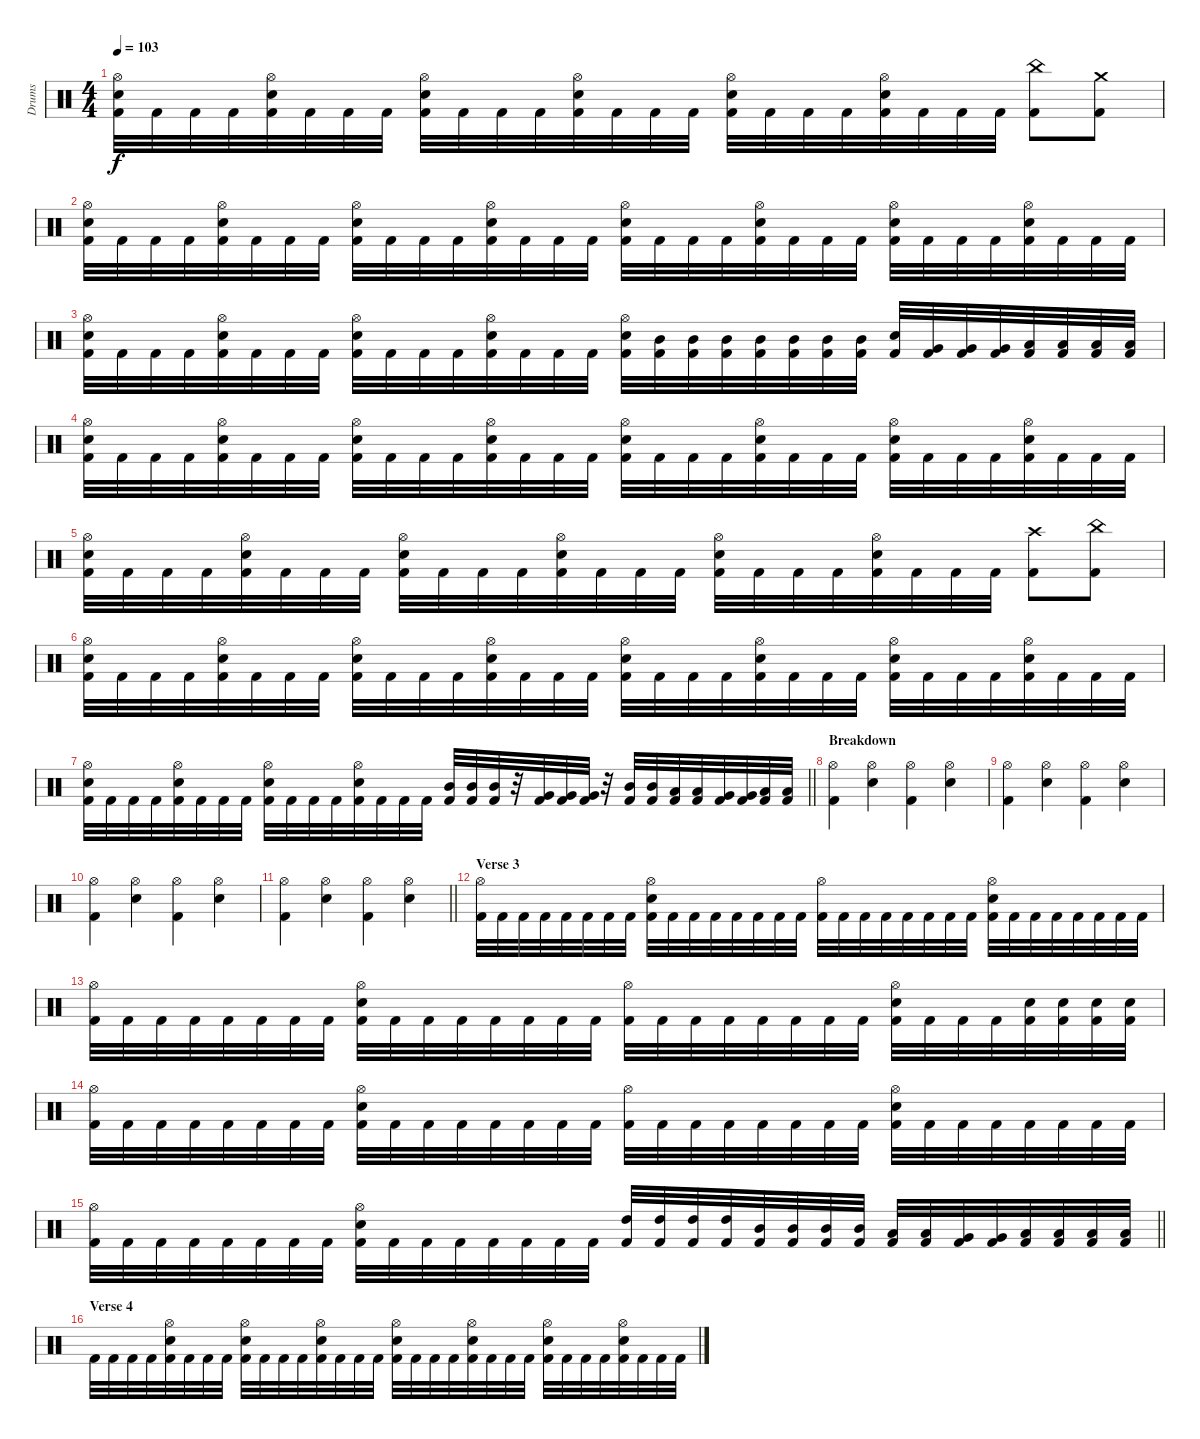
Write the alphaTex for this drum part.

\track ("Drums" "Drums") {instrument percussion}
\staff {score}
\articulation defaults
\ts (4 4)
\tempo 103
\clef neutral
\ks c
("Hi-Hat (open)" "Electric Snare (hit)" "Kick (hit) 2").32{dy f} "Kick (hit) 2".32 "Kick (hit) 2".32 "Kick (hit) 2".32 ("Hi-Hat (open)" "Electric Snare (hit)" "Kick (hit) 2").32 "Kick (hit) 2".32 "Kick (hit) 2".32 "Kick (hit) 2".32 ("Hi-Hat (open)" "Electric Snare (hit)" "Kick (hit) 2").32 "Kick (hit) 2".32 "Kick (hit) 2".32 "Kick (hit) 2".32 ("Hi-Hat (open)" "Electric Snare (hit)" "Kick (hit) 2").32 "Kick (hit) 2".32 "Kick (hit) 2".32 "Kick (hit) 2".32 ("Hi-Hat (open)" "Electric Snare (hit)" "Kick (hit) 2").32 "Kick (hit) 2".32 "Kick (hit) 2".32 "Kick (hit) 2".32 ("Hi-Hat (open)" "Electric Snare (hit)" "Kick (hit) 2").32 "Kick (hit) 2".32 "Kick (hit) 2".32 "Kick (hit) 2".32 ("China (hit)" "Kick (hit) 2").8 ("Crash medium (hit)" "Kick (hit) 2").8 |
("Hi-Hat (open)" "Electric Snare (hit)" "Kick (hit) 2").32 "Kick (hit) 2".32 "Kick (hit) 2".32 "Kick (hit) 2".32 ("Hi-Hat (open)" "Electric Snare (hit)" "Kick (hit) 2").32 "Kick (hit) 2".32 "Kick (hit) 2".32 "Kick (hit) 2".32 ("Hi-Hat (open)" "Electric Snare (hit)" "Kick (hit) 2").32 "Kick (hit) 2".32 "Kick (hit) 2".32 "Kick (hit) 2".32 ("Hi-Hat (open)" "Electric Snare (hit)" "Kick (hit) 2").32 "Kick (hit) 2".32 "Kick (hit) 2".32 "Kick (hit) 2".32 ("Hi-Hat (open)" "Electric Snare (hit)" "Kick (hit) 2").32 "Kick (hit) 2".32 "Kick (hit) 2".32 "Kick (hit) 2".32 ("Hi-Hat (open)" "Electric Snare (hit)" "Kick (hit) 2").32 "Kick (hit) 2".32 "Kick (hit) 2".32 "Kick (hit) 2".32 ("Hi-Hat (open)" "Electric Snare (hit)" "Kick (hit) 2").32 "Kick (hit) 2".32 "Kick (hit) 2".32 "Kick (hit) 2".32 ("Hi-Hat (open)" "Electric Snare (hit)" "Kick (hit) 2").32 "Kick (hit) 2".32 "Kick (hit) 2".32 "Kick (hit) 2".32 |
("Hi-Hat (open)" "Electric Snare (hit)" "Kick (hit) 2").32 "Kick (hit) 2".32 "Kick (hit) 2".32 "Kick (hit) 2".32 ("Hi-Hat (open)" "Electric Snare (hit)" "Kick (hit) 2").32 "Kick (hit) 2".32 "Kick (hit) 2".32 "Kick (hit) 2".32 ("Hi-Hat (open)" "Electric Snare (hit)" "Kick (hit) 2").32 "Kick (hit) 2".32 "Kick (hit) 2".32 "Kick (hit) 2".32 ("Hi-Hat (open)" "Electric Snare (hit)" "Kick (hit) 2").32 "Kick (hit) 2".32 "Kick (hit) 2".32 "Kick (hit) 2".32 ("Hi-Hat (open)" "Electric Snare (hit)" "Kick (hit) 2").32 ("Mid Tom (hit)" "Kick (hit) 2").32 ("Mid Tom (hit)" "Kick (hit) 2").32 ("Mid Tom (hit)" "Kick (hit) 2").32 ("Mid Tom (hit)" "Kick (hit) 2").32 ("Mid Tom (hit)" "Kick (hit) 2").32 ("Mid Tom (hit)" "Kick (hit) 2").32 ("Mid Tom (hit)" "Kick (hit) 2").32 ("Electric Snare (hit)" "Kick (hit) 2").32 ("Very Low Tom (hit)" "Kick (hit) 2").32 ("Very Low Tom (hit)" "Kick (hit) 2").32 ("Very Low Tom (hit)" "Kick (hit) 2").32 ("Low Floor Tom (hit)" "Kick (hit) 2").32 ("Low Floor Tom (hit)" "Kick (hit) 2").32 ("Low Floor Tom (hit)" "Kick (hit) 2").32 ("Low Floor Tom (hit)" "Kick (hit) 2").32 |
("Hi-Hat (open)" "Electric Snare (hit)" "Kick (hit) 2").32 "Kick (hit) 2".32 "Kick (hit) 2".32 "Kick (hit) 2".32 ("Hi-Hat (open)" "Electric Snare (hit)" "Kick (hit) 2").32 "Kick (hit) 2".32 "Kick (hit) 2".32 "Kick (hit) 2".32 ("Hi-Hat (open)" "Electric Snare (hit)" "Kick (hit) 2").32 "Kick (hit) 2".32 "Kick (hit) 2".32 "Kick (hit) 2".32 ("Hi-Hat (open)" "Electric Snare (hit)" "Kick (hit) 2").32 "Kick (hit) 2".32 "Kick (hit) 2".32 "Kick (hit) 2".32 ("Hi-Hat (open)" "Electric Snare (hit)" "Kick (hit) 2").32 "Kick (hit) 2".32 "Kick (hit) 2".32 "Kick (hit) 2".32 ("Hi-Hat (open)" "Electric Snare (hit)" "Kick (hit) 2").32 "Kick (hit) 2".32 "Kick (hit) 2".32 "Kick (hit) 2".32 ("Hi-Hat (open)" "Electric Snare (hit)" "Kick (hit) 2").32 "Kick (hit) 2".32 "Kick (hit) 2".32 "Kick (hit) 2".32 ("Hi-Hat (open)" "Electric Snare (hit)" "Kick (hit) 2").32 "Kick (hit) 2".32 "Kick (hit) 2".32 "Kick (hit) 2".32 |
("Hi-Hat (open)" "Electric Snare (hit)" "Kick (hit) 2").32 "Kick (hit) 2".32 "Kick (hit) 2".32 "Kick (hit) 2".32 ("Hi-Hat (open)" "Electric Snare (hit)" "Kick (hit) 2").32 "Kick (hit) 2".32 "Kick (hit) 2".32 "Kick (hit) 2".32 ("Hi-Hat (open)" "Electric Snare (hit)" "Kick (hit) 2").32 "Kick (hit) 2".32 "Kick (hit) 2".32 "Kick (hit) 2".32 ("Hi-Hat (open)" "Electric Snare (hit)" "Kick (hit) 2").32 "Kick (hit) 2".32 "Kick (hit) 2".32 "Kick (hit) 2".32 ("Hi-Hat (open)" "Electric Snare (hit)" "Kick (hit) 2").32 "Kick (hit) 2".32 "Kick (hit) 2".32 "Kick (hit) 2".32 ("Hi-Hat (open)" "Electric Snare (hit)" "Kick (hit) 2").32 "Kick (hit) 2".32 "Kick (hit) 2".32 "Kick (hit) 2".32 ("Crash high (hit)" "Kick (hit) 2").8 ("China (hit)" "Kick (hit) 2").8 |
("Hi-Hat (open)" "Electric Snare (hit)" "Kick (hit) 2").32 "Kick (hit) 2".32 "Kick (hit) 2".32 "Kick (hit) 2".32 ("Hi-Hat (open)" "Electric Snare (hit)" "Kick (hit) 2").32 "Kick (hit) 2".32 "Kick (hit) 2".32 "Kick (hit) 2".32 ("Hi-Hat (open)" "Electric Snare (hit)" "Kick (hit) 2").32 "Kick (hit) 2".32 "Kick (hit) 2".32 "Kick (hit) 2".32 ("Hi-Hat (open)" "Electric Snare (hit)" "Kick (hit) 2").32 "Kick (hit) 2".32 "Kick (hit) 2".32 "Kick (hit) 2".32 ("Hi-Hat (open)" "Electric Snare (hit)" "Kick (hit) 2").32 "Kick (hit) 2".32 "Kick (hit) 2".32 "Kick (hit) 2".32 ("Hi-Hat (open)" "Electric Snare (hit)" "Kick (hit) 2").32 "Kick (hit) 2".32 "Kick (hit) 2".32 "Kick (hit) 2".32 ("Hi-Hat (open)" "Electric Snare (hit)" "Kick (hit) 2").32 "Kick (hit) 2".32 "Kick (hit) 2".32 "Kick (hit) 2".32 ("Hi-Hat (open)" "Electric Snare (hit)" "Kick (hit) 2").32 "Kick (hit) 2".32 "Kick (hit) 2".32 "Kick (hit) 2".32 |
\barLineRight lightlight
("Hi-Hat (open)" "Electric Snare (hit)" "Kick (hit) 2").32 "Kick (hit) 2".32 "Kick (hit) 2".32 "Kick (hit) 2".32 ("Hi-Hat (open)" "Electric Snare (hit)" "Kick (hit) 2").32 "Kick (hit) 2".32 "Kick (hit) 2".32 "Kick (hit) 2".32 ("Hi-Hat (open)" "Electric Snare (hit)" "Kick (hit) 2").32 "Kick (hit) 2".32 "Kick (hit) 2".32 "Kick (hit) 2".32 ("Hi-Hat (open)" "Electric Snare (hit)" "Kick (hit) 2").32 "Kick (hit) 2".32 "Kick (hit) 2".32 "Kick (hit) 2".32 ("Mid Tom (hit)" "Kick (hit) 2").32 ("Mid Tom (hit)" "Kick (hit) 2").32 ("Mid Tom (hit)" "Kick (hit) 2").32 r.32 ("Very Low Tom (hit)" "Kick (hit) 2").32 ("Very Low Tom (hit)" "Kick (hit) 2").32 ("Very Low Tom (hit)" "Kick (hit) 2").32 r.32 ("Mid Tom (hit)" "Kick (hit) 2").32 ("Mid Tom (hit)" "Kick (hit) 2").32 ("Low Tom (hit)" "Kick (hit) 2").32 ("Low Tom (hit)" "Kick (hit) 2").32 ("Very Low Tom (hit)" "Kick (hit) 2").32 ("Very Low Tom (hit)" "Kick (hit) 2").32 ("Low Floor Tom (hit)" "Kick (hit) 2").32 ("Low Floor Tom (hit)" "Kick (hit) 2").32 |
\section ("" "Breakdown")
("Hi-Hat (open)" "Kick (hit) 2").4 ("Hi-Hat (open)" "Electric Snare (hit)").4 ("Hi-Hat (open)" "Kick (hit) 2").4 ("Hi-Hat (open)" "Electric Snare (hit)").4 |
("Hi-Hat (open)" "Kick (hit) 2").4 ("Hi-Hat (open)" "Electric Snare (hit)").4 ("Hi-Hat (open)" "Kick (hit) 2").4 ("Hi-Hat (open)" "Electric Snare (hit)").4 |
("Hi-Hat (open)" "Kick (hit) 2").4 ("Hi-Hat (open)" "Electric Snare (hit)").4 ("Hi-Hat (open)" "Kick (hit) 2").4 ("Hi-Hat (open)" "Electric Snare (hit)").4 |
\barLineRight lightlight
("Hi-Hat (open)" "Kick (hit) 2").4 ("Hi-Hat (open)" "Electric Snare (hit)").4 ("Hi-Hat (open)" "Kick (hit) 2").4 ("Hi-Hat (open)" "Electric Snare (hit)").4 |
\section ("" "Verse 3")
("Hi-Hat (open)" "Kick (hit) 2").32 "Kick (hit) 2".32 "Kick (hit) 2".32 "Kick (hit) 2".32 "Kick (hit) 2".32 "Kick (hit) 2".32 "Kick (hit) 2".32 "Kick (hit) 2".32 ("Hi-Hat (open)" "Electric Snare (hit)" "Kick (hit) 2").32 "Kick (hit) 2".32 "Kick (hit) 2".32 "Kick (hit) 2".32 "Kick (hit) 2".32 "Kick (hit) 2".32 "Kick (hit) 2".32 "Kick (hit) 2".32 ("Hi-Hat (open)" "Kick (hit) 2").32 "Kick (hit) 2".32 "Kick (hit) 2".32 "Kick (hit) 2".32 "Kick (hit) 2".32 "Kick (hit) 2".32 "Kick (hit) 2".32 "Kick (hit) 2".32 ("Hi-Hat (open)" "Electric Snare (hit)" "Kick (hit) 2").32 "Kick (hit) 2".32 "Kick (hit) 2".32 "Kick (hit) 2".32 "Kick (hit) 2".32 "Kick (hit) 2".32 "Kick (hit) 2".32 "Kick (hit) 2".32 |
("Hi-Hat (open)" "Kick (hit) 2").32 "Kick (hit) 2".32 "Kick (hit) 2".32 "Kick (hit) 2".32 "Kick (hit) 2".32 "Kick (hit) 2".32 "Kick (hit) 2".32 "Kick (hit) 2".32 ("Hi-Hat (open)" "Electric Snare (hit)" "Kick (hit) 2").32 "Kick (hit) 2".32 "Kick (hit) 2".32 "Kick (hit) 2".32 "Kick (hit) 2".32 "Kick (hit) 2".32 "Kick (hit) 2".32 "Kick (hit) 2".32 ("Hi-Hat (open)" "Kick (hit) 2").32 "Kick (hit) 2".32 "Kick (hit) 2".32 "Kick (hit) 2".32 "Kick (hit) 2".32 "Kick (hit) 2".32 "Kick (hit) 2".32 "Kick (hit) 2".32 ("Hi-Hat (open)" "Electric Snare (hit)" "Kick (hit) 2").32 "Kick (hit) 2".32 "Kick (hit) 2".32 "Kick (hit) 2".32 ("Electric Snare (hit)" "Kick (hit) 2").32 ("Electric Snare (hit)" "Kick (hit) 2").32 ("Electric Snare (hit)" "Kick (hit) 2").32 ("Electric Snare (hit)" "Kick (hit) 2").32 |
("Hi-Hat (open)" "Kick (hit) 2").32 "Kick (hit) 2".32 "Kick (hit) 2".32 "Kick (hit) 2".32 "Kick (hit) 2".32 "Kick (hit) 2".32 "Kick (hit) 2".32 "Kick (hit) 2".32 ("Hi-Hat (open)" "Electric Snare (hit)" "Kick (hit) 2").32 "Kick (hit) 2".32 "Kick (hit) 2".32 "Kick (hit) 2".32 "Kick (hit) 2".32 "Kick (hit) 2".32 "Kick (hit) 2".32 "Kick (hit) 2".32 ("Hi-Hat (open)" "Kick (hit) 2").32 "Kick (hit) 2".32 "Kick (hit) 2".32 "Kick (hit) 2".32 "Kick (hit) 2".32 "Kick (hit) 2".32 "Kick (hit) 2".32 "Kick (hit) 2".32 ("Hi-Hat (open)" "Electric Snare (hit)" "Kick (hit) 2").32 "Kick (hit) 2".32 "Kick (hit) 2".32 "Kick (hit) 2".32 "Kick (hit) 2".32 "Kick (hit) 2".32 "Kick (hit) 2".32 "Kick (hit) 2".32 |
\barLineRight lightlight
("Hi-Hat (open)" "Kick (hit) 2").32 "Kick (hit) 2".32 "Kick (hit) 2".32 "Kick (hit) 2".32 "Kick (hit) 2".32 "Kick (hit) 2".32 "Kick (hit) 2".32 "Kick (hit) 2".32 ("Hi-Hat (open)" "Electric Snare (hit)" "Kick (hit) 2").32 "Kick (hit) 2".32 "Kick (hit) 2".32 "Kick (hit) 2".32 "Kick (hit) 2".32 "Kick (hit) 2".32 "Kick (hit) 2".32 "Kick (hit) 2".32 ("High Tom (hit)" "Kick (hit) 2").32 ("High Tom (hit)" "Kick (hit) 2").32 ("High Tom (hit)" "Kick (hit) 2").32 ("High Tom (hit)" "Kick (hit) 2").32 ("Mid Tom (hit)" "Kick (hit) 2").32 ("Mid Tom (hit)" "Kick (hit) 2").32 ("Mid Tom (hit)" "Kick (hit) 2").32 ("Mid Tom (hit)" "Kick (hit) 2").32 ("Low Tom (hit)" "Kick (hit) 2").32 ("Low Tom (hit)" "Kick (hit) 2").32 ("Very Low Tom (hit)" "Kick (hit) 2").32 ("Very Low Tom (hit)" "Kick (hit) 2").32 ("Low Floor Tom (hit)" "Kick (hit) 2").32 ("Low Floor Tom (hit)" "Kick (hit) 2").32 ("Low Floor Tom (hit)" "Kick (hit) 2").32 ("Low Floor Tom (hit)" "Kick (hit) 2").32 |
\section ("" "Verse 4")
"Kick (hit) 2".32 "Kick (hit) 2".32 "Kick (hit) 2".32 "Kick (hit) 2".32 ("Hi-Hat (open)" "Electric Snare (hit)" "Kick (hit) 2").32 "Kick (hit) 2".32 "Kick (hit) 2".32 "Kick (hit) 2".32 ("Hi-Hat (open)" "Electric Snare (hit)" "Kick (hit) 2").32 "Kick (hit) 2".32 "Kick (hit) 2".32 "Kick (hit) 2".32 ("Hi-Hat (open)" "Electric Snare (hit)" "Kick (hit) 2").32 "Kick (hit) 2".32 "Kick (hit) 2".32 "Kick (hit) 2".32 ("Hi-Hat (open)" "Electric Snare (hit)" "Kick (hit) 2").32 "Kick (hit) 2".32 "Kick (hit) 2".32 "Kick (hit) 2".32 ("Hi-Hat (open)" "Electric Snare (hit)" "Kick (hit) 2").32 "Kick (hit) 2".32 "Kick (hit) 2".32 "Kick (hit) 2".32 ("Hi-Hat (open)" "Electric Snare (hit)" "Kick (hit) 2").32 "Kick (hit) 2".32 "Kick (hit) 2".32 "Kick (hit) 2".32 ("Hi-Hat (open)" "Electric Snare (hit)" "Kick (hit) 2").32 "Kick (hit) 2".32 "Kick (hit) 2".32 "Kick (hit) 2".32
